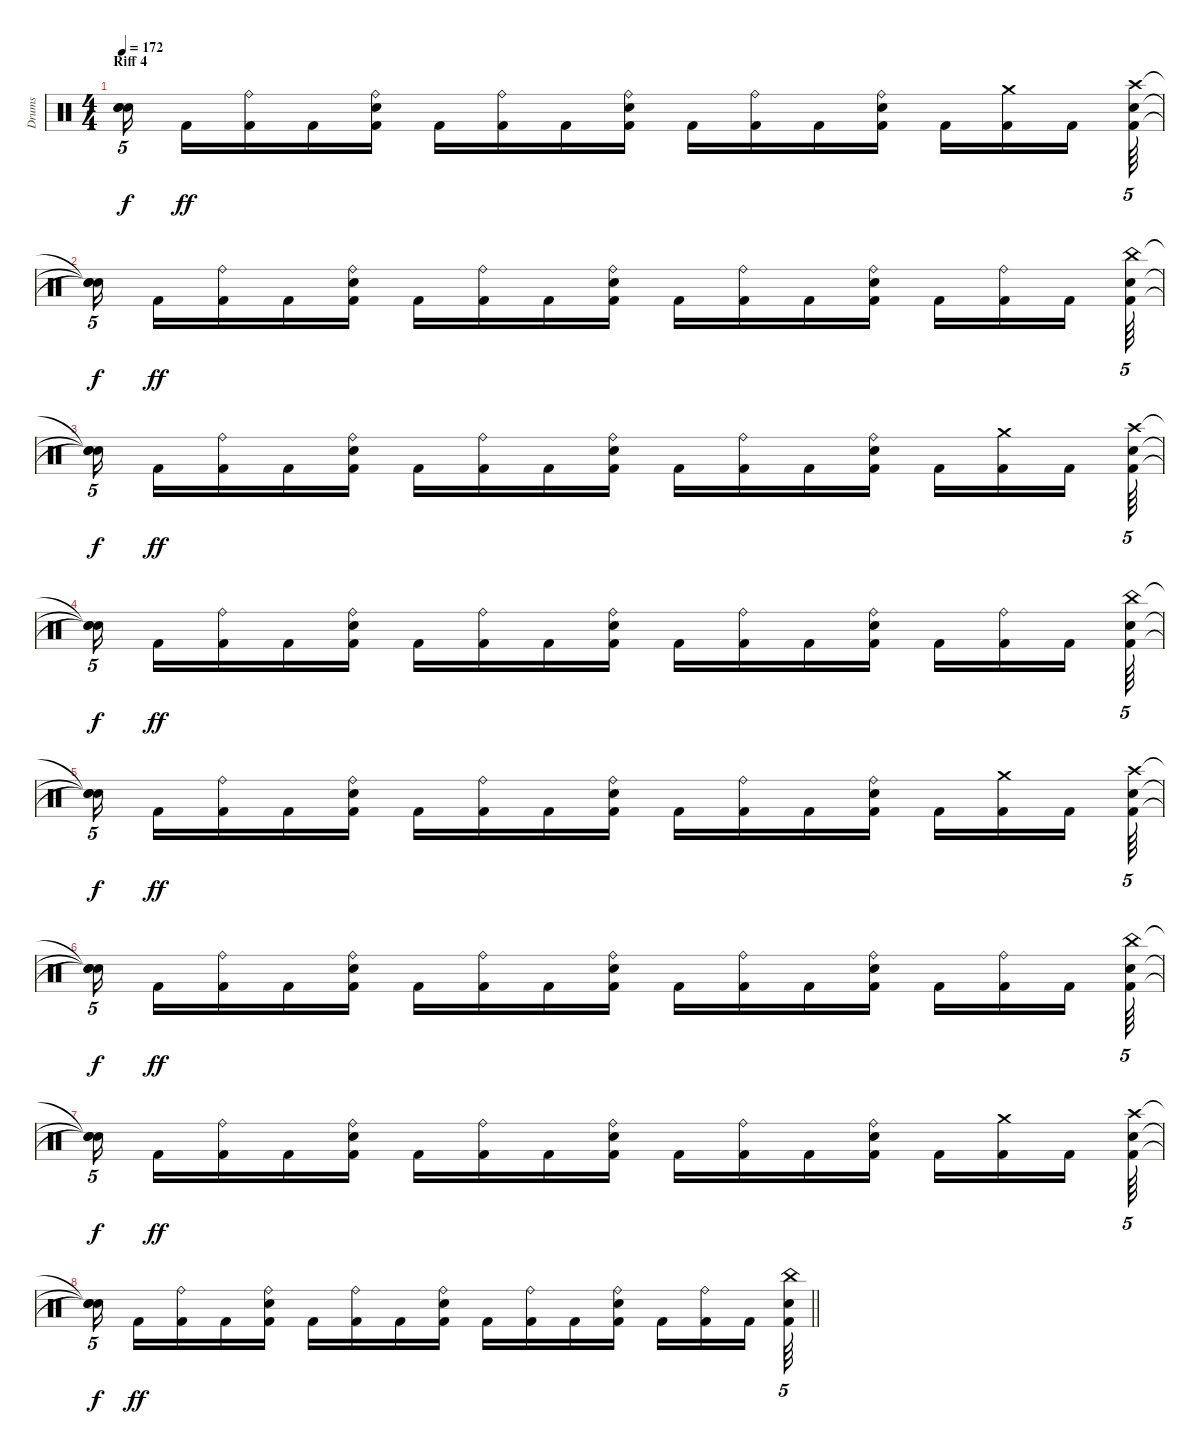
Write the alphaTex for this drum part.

\track ("Drums" "Drums") {instrument percussion}
\staff {score}
\articulation defaults
\ts (4 4)
\section ("" "Riff 4")
\tempo 172
\clef neutral
\ks c
("Snare (hit)"{t} "Snare (hit)"{t} "Snare (hit)"{t}).16{tu (5 4) dy f beam splitsecondary} "Kick (hit) 2".16{dy ff} ("Kick (hit) 2" "Ride (bell)").16 "Kick (hit) 2".16 ("Kick (hit) 2" "Snare (hit) 2" "Ride (bell)").16 "Kick (hit) 2".16 ("Kick (hit) 2" "Ride (bell)").16 "Kick (hit) 2".16 ("Kick (hit) 2" "Snare (hit) 2" "Ride (bell)").16 "Kick (hit) 2".16 ("Kick (hit) 2" "Ride (bell)").16 "Kick (hit) 2".16 ("Kick (hit) 2" "Snare (hit) 2" "Ride (bell)").16 "Kick (hit) 2".16 ("Crash medium (hit)" "Kick (hit) 2").16 "Kick (hit) 2".16{beam splitsecondary} ("Crash high (hit)" "Kick (hit) 2" "Snare (hit) 2").64{tu (5 4)} |
("Snare (hit)"{t} "Snare (hit)"{t} "Snare (hit)"{t}).16{tu (5 4) dy f beam splitsecondary} "Kick (hit) 2".16{dy ff} ("Kick (hit) 2" "Ride (bell)").16 "Kick (hit) 2".16 ("Kick (hit) 2" "Snare (hit) 2" "Ride (bell)").16 "Kick (hit) 2".16 ("Kick (hit) 2" "Ride (bell)").16 "Kick (hit) 2".16 ("Kick (hit) 2" "Snare (hit) 2" "Ride (bell)").16 "Kick (hit) 2".16 ("Kick (hit) 2" "Ride (bell)").16 "Kick (hit) 2".16 ("Kick (hit) 2" "Snare (hit) 2" "Ride (bell)").16 "Kick (hit) 2".16 ("Kick (hit) 2" "Ride (bell)").16 "Kick (hit) 2".16{beam splitsecondary} ("China (hit)" "Kick (hit) 2" "Snare (hit) 2").64{tu (5 4)} |
("Snare (hit)"{t} "Snare (hit)"{t} "Snare (hit)"{t}).16{tu (5 4) dy f beam splitsecondary} "Kick (hit) 2".16{dy ff} ("Kick (hit) 2" "Ride (bell)").16 "Kick (hit) 2".16 ("Kick (hit) 2" "Snare (hit) 2" "Ride (bell)").16 "Kick (hit) 2".16 ("Kick (hit) 2" "Ride (bell)").16 "Kick (hit) 2".16 ("Kick (hit) 2" "Snare (hit) 2" "Ride (bell)").16 "Kick (hit) 2".16 ("Kick (hit) 2" "Ride (bell)").16 "Kick (hit) 2".16 ("Kick (hit) 2" "Snare (hit) 2" "Ride (bell)").16 "Kick (hit) 2".16 ("Crash medium (hit)" "Kick (hit) 2").16 "Kick (hit) 2".16{beam splitsecondary} ("Crash high (hit)" "Kick (hit) 2" "Snare (hit) 2").64{tu (5 4)} |
("Snare (hit)"{t} "Snare (hit)"{t} "Snare (hit)"{t}).16{tu (5 4) dy f beam splitsecondary} "Kick (hit) 2".16{dy ff} ("Kick (hit) 2" "Ride (bell)").16 "Kick (hit) 2".16 ("Kick (hit) 2" "Snare (hit) 2" "Ride (bell)").16 "Kick (hit) 2".16 ("Kick (hit) 2" "Ride (bell)").16 "Kick (hit) 2".16 ("Kick (hit) 2" "Snare (hit) 2" "Ride (bell)").16 "Kick (hit) 2".16 ("Kick (hit) 2" "Ride (bell)").16 "Kick (hit) 2".16 ("Kick (hit) 2" "Snare (hit) 2" "Ride (bell)").16 "Kick (hit) 2".16 ("Kick (hit) 2" "Ride (bell)").16 "Kick (hit) 2".16{beam splitsecondary} ("China (hit)" "Kick (hit) 2" "Snare (hit) 2").64{tu (5 4)} |
("Snare (hit)"{t} "Snare (hit)"{t} "Snare (hit)"{t}).16{tu (5 4) dy f beam splitsecondary} "Kick (hit) 2".16{dy ff} ("Kick (hit) 2" "Ride (bell)").16 "Kick (hit) 2".16 ("Kick (hit) 2" "Snare (hit) 2" "Ride (bell)").16 "Kick (hit) 2".16 ("Kick (hit) 2" "Ride (bell)").16 "Kick (hit) 2".16 ("Kick (hit) 2" "Snare (hit) 2" "Ride (bell)").16 "Kick (hit) 2".16 ("Kick (hit) 2" "Ride (bell)").16 "Kick (hit) 2".16 ("Kick (hit) 2" "Snare (hit) 2" "Ride (bell)").16 "Kick (hit) 2".16 ("Crash medium (hit)" "Kick (hit) 2").16 "Kick (hit) 2".16{beam splitsecondary} ("Crash high (hit)" "Kick (hit) 2" "Snare (hit) 2").64{tu (5 4)} |
("Snare (hit)"{t} "Snare (hit)"{t} "Snare (hit)"{t}).16{tu (5 4) dy f beam splitsecondary} "Kick (hit) 2".16{dy ff} ("Kick (hit) 2" "Ride (bell)").16 "Kick (hit) 2".16 ("Kick (hit) 2" "Snare (hit) 2" "Ride (bell)").16 "Kick (hit) 2".16 ("Kick (hit) 2" "Ride (bell)").16 "Kick (hit) 2".16 ("Kick (hit) 2" "Snare (hit) 2" "Ride (bell)").16 "Kick (hit) 2".16 ("Kick (hit) 2" "Ride (bell)").16 "Kick (hit) 2".16 ("Kick (hit) 2" "Snare (hit) 2" "Ride (bell)").16 "Kick (hit) 2".16 ("Kick (hit) 2" "Ride (bell)").16 "Kick (hit) 2".16{beam splitsecondary} ("China (hit)" "Kick (hit) 2" "Snare (hit) 2").64{tu (5 4)} |
("Snare (hit)"{t} "Snare (hit)"{t} "Snare (hit)"{t}).16{tu (5 4) dy f beam splitsecondary} "Kick (hit) 2".16{dy ff} ("Kick (hit) 2" "Ride (bell)").16 "Kick (hit) 2".16 ("Kick (hit) 2" "Snare (hit) 2" "Ride (bell)").16 "Kick (hit) 2".16 ("Kick (hit) 2" "Ride (bell)").16 "Kick (hit) 2".16 ("Kick (hit) 2" "Snare (hit) 2" "Ride (bell)").16 "Kick (hit) 2".16 ("Kick (hit) 2" "Ride (bell)").16 "Kick (hit) 2".16 ("Kick (hit) 2" "Snare (hit) 2" "Ride (bell)").16 "Kick (hit) 2".16 ("Crash medium (hit)" "Kick (hit) 2").16 "Kick (hit) 2".16{beam splitsecondary} ("Crash high (hit)" "Kick (hit) 2" "Snare (hit) 2").64{tu (5 4)} |
\barLineRight lightlight
("Snare (hit)"{t} "Snare (hit)"{t} "Snare (hit)"{t}).16{tu (5 4) dy f beam splitsecondary} "Kick (hit) 2".16{dy ff} ("Kick (hit) 2" "Ride (bell)").16 "Kick (hit) 2".16 ("Kick (hit) 2" "Snare (hit) 2" "Ride (bell)").16 "Kick (hit) 2".16 ("Kick (hit) 2" "Ride (bell)").16 "Kick (hit) 2".16 ("Kick (hit) 2" "Snare (hit) 2" "Ride (bell)").16 "Kick (hit) 2".16 ("Kick (hit) 2" "Ride (bell)").16 "Kick (hit) 2".16 ("Kick (hit) 2" "Snare (hit) 2" "Ride (bell)").16 "Kick (hit) 2".16 ("Kick (hit) 2" "Ride (bell)").16 "Kick (hit) 2".16{beam splitsecondary} ("China (hit)" "Kick (hit) 2" "Snare (hit) 2").64{tu (5 4)}
